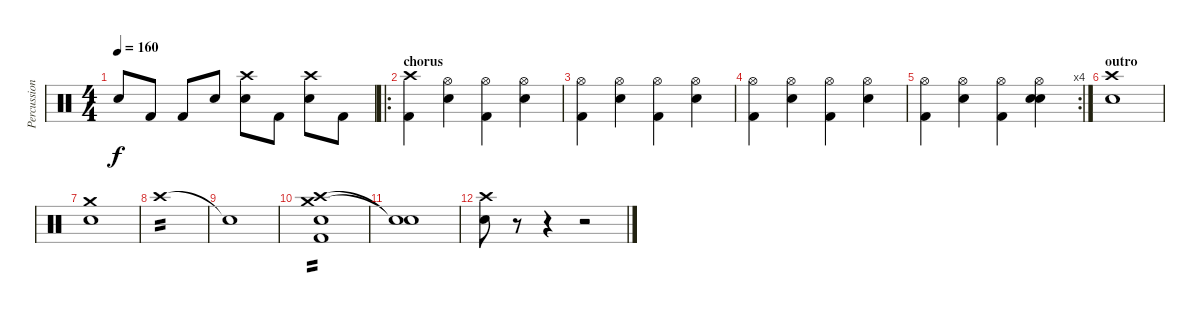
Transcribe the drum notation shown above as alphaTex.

\track ("Percussion" "Percussion") {instrument percussion}
\staff {score}
\articulation defaults
\ts (4 4)
\tempo 160
\clef neutral
\ks c "Snare (hit) 2".8{dy f} "Kick (hit) 2".8 "Kick (hit) 2".8 "Snare (hit) 2".8
("Crash high (hit)" "Snare (hit) 2").8 "Kick (hit) 2".8 ("Crash high (hit)" "Snare (hit) 2").8 "Kick (hit) 2".8 |
\ro
\section ("" "chorus")
("Crash high (hit)" "Kick (hit) 2").4 ("Hi-Hat (open)" "Snare (hit) 2").4 ("Hi-Hat (open)" "Kick (hit) 2").4 ("Hi-Hat (open)" "Snare (hit) 2").4 |
("Hi-Hat (open)" "Kick (hit) 2").4 ("Hi-Hat (open)" "Snare (hit) 2").4 ("Hi-Hat (open)" "Kick (hit) 2").4 ("Hi-Hat (open)" "Snare (hit) 2").4 |
("Hi-Hat (open)" "Kick (hit) 2").4 ("Hi-Hat (open)" "Snare (hit) 2").4 ("Hi-Hat (open)" "Kick (hit) 2").4 ("Hi-Hat (open)" "Snare (hit) 2").4 |
\rc 4
("Hi-Hat (open)" "Kick (hit) 2").4 ("Hi-Hat (open)" "Snare (hit) 2").4 ("Hi-Hat (open)" "Kick (hit) 2").4 ("Hi-Hat (open)" "Snare (hit) 2" "Snare (hit) 2").4 |
\section ("" "outro")
("Crash high (hit)" "Snare (hit) 2").1 |
("Crash medium (hit)" "Snare (hit) 2").1 |
"Crash high (hit)".1{tp 2} |
"Snare (hit)"{t}.1 |
("Crash high (hit)" "Crash medium (hit)" "Snare (hit) 2" "Kick (hit) 2").1{tp 2} |
("Snare (hit)"{t} "Snare (hit)"{t}).1 |
("Crash high (hit)" "Snare (hit) 2").8 r.8 r.4 r.2
